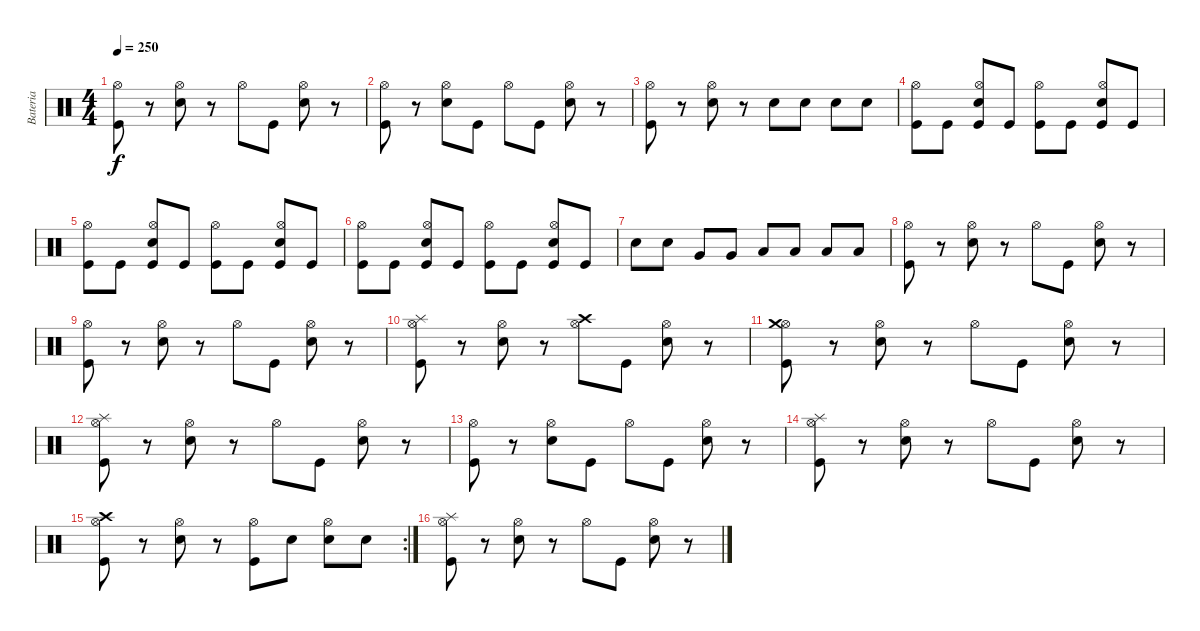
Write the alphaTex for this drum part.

\track ("Bateria" "Bateria") {instrument percussion}
\staff {score}
\articulation defaults
\ts (4 4)
\tempo 250
\clef neutral
\ks c
("Kick (hit)" "Hi-Hat (open)").8{dy f} r.8 ("Electric Snare (hit)" "Hi-Hat (open)").8 r.8 "Hi-Hat (open)".8 "Kick (hit)".8 ("Electric Snare (hit)" "Hi-Hat (open)").8 r.8 |
("Kick (hit)" "Hi-Hat (open)").8 r.8 ("Electric Snare (hit)" "Hi-Hat (open)").8 "Kick (hit)".8 "Hi-Hat (open)".8 "Kick (hit)".8 ("Electric Snare (hit)" "Hi-Hat (open)").8 r.8 |
("Kick (hit)" "Hi-Hat (open)").8 r.8 ("Electric Snare (hit)" "Hi-Hat (open)").8 r.8 "Electric Snare (hit)".8 "Electric Snare (hit)".8 "Electric Snare (hit)".8 "Electric Snare (hit)".8 |
("Kick (hit)" "Hi-Hat (open)").8 "Kick (hit)".8 ("Kick (hit)" "Electric Snare (hit)" "Hi-Hat (open)").8 "Kick (hit)".8 ("Kick (hit)" "Hi-Hat (open)").8 "Kick (hit)".8 ("Kick (hit)" "Electric Snare (hit)" "Hi-Hat (open)").8 "Kick (hit)".8 |
("Kick (hit)" "Hi-Hat (open)").8 "Kick (hit)".8 ("Kick (hit)" "Electric Snare (hit)" "Hi-Hat (open)").8 "Kick (hit)".8 ("Kick (hit)" "Hi-Hat (open)").8 "Kick (hit)".8 ("Kick (hit)" "Electric Snare (hit)" "Hi-Hat (open)").8 "Kick (hit)".8 |
("Kick (hit)" "Hi-Hat (open)").8 "Kick (hit)".8 ("Kick (hit)" "Electric Snare (hit)" "Hi-Hat (open)").8 "Kick (hit)".8 ("Kick (hit)" "Hi-Hat (open)").8 "Kick (hit)".8 ("Kick (hit)" "Electric Snare (hit)" "Hi-Hat (open)").8 "Kick (hit)".8 |
"Electric Snare (hit)".8 "Electric Snare (hit)".8 "Very Low Tom (hit)".8 "Very Low Tom (hit)".8 "Low Floor Tom (hit)".8 "Low Floor Tom (hit)".8 "Low Tom (hit)".8 "Low Tom (hit)".8 |
("Kick (hit)" "Hi-Hat (open)").8 r.8 ("Electric Snare (hit)" "Hi-Hat (open)").8 r.8 "Hi-Hat (open)".8 "Kick (hit)".8 ("Electric Snare (hit)" "Hi-Hat (open)").8 r.8 |
("Kick (hit)" "Hi-Hat (open)").8 r.8 ("Electric Snare (hit)" "Hi-Hat (open)").8 r.8 "Hi-Hat (open)".8 "Kick (hit)".8 ("Electric Snare (hit)" "Hi-Hat (open)").8 r.8 |
("Kick (hit)" "Hi-Hat (open)" "Splash (hit)").8 r.8 ("Electric Snare (hit)" "Hi-Hat (open)").8 r.8 ("Hi-Hat (open)" "Crash high (hit)").8 "Kick (hit)".8 ("Electric Snare (hit)" "Hi-Hat (open)").8 r.8 |
("Kick (hit)" "Hi-Hat (open)" "Crash medium (hit)").8 r.8 ("Electric Snare (hit)" "Hi-Hat (open)").8 r.8 "Hi-Hat (open)".8 "Kick (hit)".8 ("Electric Snare (hit)" "Hi-Hat (open)").8 r.8 |
("Kick (hit)" "Hi-Hat (open)" "Splash (hit)").8 r.8 ("Electric Snare (hit)" "Hi-Hat (open)").8 r.8 "Hi-Hat (open)".8 "Kick (hit)".8 ("Electric Snare (hit)" "Hi-Hat (open)").8 r.8 |
("Kick (hit)" "Hi-Hat (open)").8 r.8 ("Electric Snare (hit)" "Hi-Hat (open)").8 "Kick (hit)".8 "Hi-Hat (open)".8 "Kick (hit)".8 ("Electric Snare (hit)" "Hi-Hat (open)").8 r.8 |
("Kick (hit)" "Hi-Hat (open)" "Splash (hit)").8 r.8 ("Electric Snare (hit)" "Hi-Hat (open)").8 r.8 "Hi-Hat (open)".8 "Kick (hit)".8 ("Electric Snare (hit)" "Hi-Hat (open)").8 r.8 |
\rc 2
("Kick (hit)" "Hi-Hat (open)" "Crash high (hit)").8 r.8 ("Electric Snare (hit)" "Hi-Hat (open)").8 r.8 ("Kick (hit)" "Hi-Hat (open)").8 "Electric Snare (hit)".8 ("Electric Snare (hit)" "Hi-Hat (open)").8 "Electric Snare (hit)".8 |
("Kick (hit)" "Hi-Hat (open)" "Splash (hit)").8 r.8 ("Electric Snare (hit)" "Hi-Hat (open)").8 r.8 "Hi-Hat (open)".8 "Kick (hit)".8 ("Electric Snare (hit)" "Hi-Hat (open)").8 r.8
